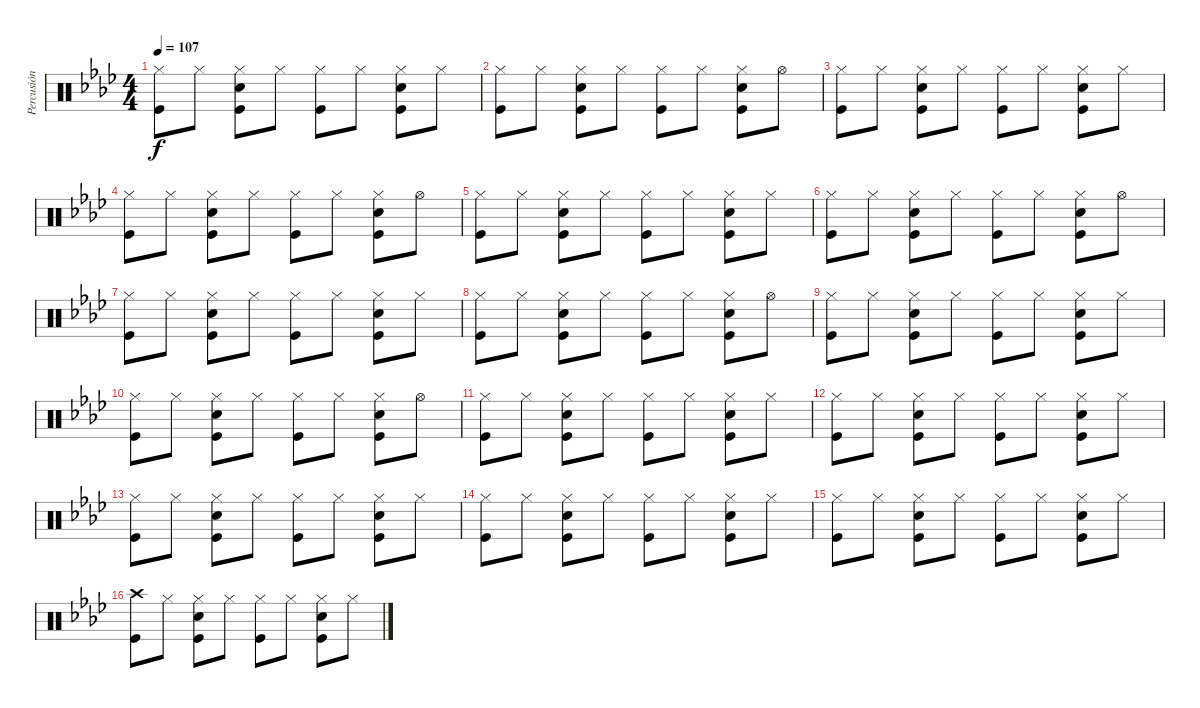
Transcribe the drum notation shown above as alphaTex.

\track ("Percusión" "Percusión") {instrument percussion}
\staff {score}
\articulation defaults
\ts (4 4)
\tempo 107
\clef neutral
\ks ab
("Hi-Hat (closed)" "Kick (hit)").8{dy f} "Hi-Hat (closed)".8 ("Hi-Hat (closed)" "Snare (hit) 2" "Kick (hit)").8 "Hi-Hat (closed)".8 ("Hi-Hat (closed)" "Kick (hit)").8 "Hi-Hat (closed)".8 ("Hi-Hat (closed)" "Snare (hit) 2" "Kick (hit)").8 "Hi-Hat (closed)".8 |
("Hi-Hat (closed)" "Kick (hit)").8 "Hi-Hat (closed)".8 ("Hi-Hat (closed)" "Snare (hit) 2" "Kick (hit)").8 "Hi-Hat (closed)".8 ("Hi-Hat (closed)" "Kick (hit)").8 "Hi-Hat (closed)".8 ("Hi-Hat (closed)" "Snare (hit) 2" "Kick (hit)").8 "Hi-Hat (open)".8 |
("Hi-Hat (closed)" "Kick (hit)").8 "Hi-Hat (closed)".8 ("Hi-Hat (closed)" "Snare (hit) 2" "Kick (hit)").8 "Hi-Hat (closed)".8 ("Hi-Hat (closed)" "Kick (hit)").8 "Hi-Hat (closed)".8 ("Hi-Hat (closed)" "Snare (hit) 2" "Kick (hit)").8 "Hi-Hat (closed)".8 |
("Hi-Hat (closed)" "Kick (hit)").8 "Hi-Hat (closed)".8 ("Hi-Hat (closed)" "Snare (hit) 2" "Kick (hit)").8 "Hi-Hat (closed)".8 ("Hi-Hat (closed)" "Kick (hit)").8 "Hi-Hat (closed)".8 ("Hi-Hat (closed)" "Snare (hit) 2" "Kick (hit)").8 "Hi-Hat (open)".8 |
("Hi-Hat (closed)" "Kick (hit)").8 "Hi-Hat (closed)".8 ("Hi-Hat (closed)" "Snare (hit) 2" "Kick (hit)").8 "Hi-Hat (closed)".8 ("Hi-Hat (closed)" "Kick (hit)").8 "Hi-Hat (closed)".8 ("Hi-Hat (closed)" "Snare (hit) 2" "Kick (hit)").8 "Hi-Hat (closed)".8 |
("Hi-Hat (closed)" "Kick (hit)").8 "Hi-Hat (closed)".8 ("Hi-Hat (closed)" "Snare (hit) 2" "Kick (hit)").8 "Hi-Hat (closed)".8 ("Hi-Hat (closed)" "Kick (hit)").8 "Hi-Hat (closed)".8 ("Hi-Hat (closed)" "Snare (hit) 2" "Kick (hit)").8 "Hi-Hat (open)".8 |
("Hi-Hat (closed)" "Kick (hit)").8 "Hi-Hat (closed)".8 ("Hi-Hat (closed)" "Snare (hit) 2" "Kick (hit)").8 "Hi-Hat (closed)".8 ("Hi-Hat (closed)" "Kick (hit)").8 "Hi-Hat (closed)".8 ("Hi-Hat (closed)" "Snare (hit) 2" "Kick (hit)").8 "Hi-Hat (closed)".8 |
("Hi-Hat (closed)" "Kick (hit)").8 "Hi-Hat (closed)".8 ("Hi-Hat (closed)" "Snare (hit) 2" "Kick (hit)").8 "Hi-Hat (closed)".8 ("Hi-Hat (closed)" "Kick (hit)").8 "Hi-Hat (closed)".8 ("Hi-Hat (closed)" "Snare (hit) 2" "Kick (hit)").8 "Hi-Hat (open)".8 |
("Hi-Hat (closed)" "Kick (hit)").8 "Hi-Hat (closed)".8 ("Hi-Hat (closed)" "Snare (hit) 2" "Kick (hit)").8 "Hi-Hat (closed)".8 ("Hi-Hat (closed)" "Kick (hit)").8 "Hi-Hat (closed)".8 ("Hi-Hat (closed)" "Snare (hit) 2" "Kick (hit)").8 "Hi-Hat (closed)".8 |
("Hi-Hat (closed)" "Kick (hit)").8 "Hi-Hat (closed)".8 ("Hi-Hat (closed)" "Snare (hit) 2" "Kick (hit)").8 "Hi-Hat (closed)".8 ("Hi-Hat (closed)" "Kick (hit)").8 "Hi-Hat (closed)".8 ("Hi-Hat (closed)" "Snare (hit) 2" "Kick (hit)").8 "Hi-Hat (open)".8 |
("Hi-Hat (closed)" "Kick (hit)").8 "Hi-Hat (closed)".8 ("Hi-Hat (closed)" "Snare (hit) 2" "Kick (hit)").8 "Hi-Hat (closed)".8 ("Hi-Hat (closed)" "Kick (hit)").8 "Hi-Hat (closed)".8 ("Hi-Hat (closed)" "Snare (hit) 2" "Kick (hit)").8 "Hi-Hat (closed)".8 |
("Hi-Hat (closed)" "Kick (hit)").8 "Hi-Hat (closed)".8 ("Hi-Hat (closed)" "Snare (hit) 2" "Kick (hit)").8 "Hi-Hat (closed)".8 ("Hi-Hat (closed)" "Kick (hit)").8 "Hi-Hat (closed)".8 ("Hi-Hat (closed)" "Snare (hit) 2" "Kick (hit)").8 "Hi-Hat (closed)".8 |
("Hi-Hat (closed)" "Kick (hit)").8 "Hi-Hat (closed)".8 ("Hi-Hat (closed)" "Snare (hit) 2" "Kick (hit)").8 "Hi-Hat (closed)".8 ("Hi-Hat (closed)" "Kick (hit)").8 "Hi-Hat (closed)".8 ("Hi-Hat (closed)" "Snare (hit) 2" "Kick (hit)").8 "Hi-Hat (closed)".8 |
("Hi-Hat (closed)" "Kick (hit)").8 "Hi-Hat (closed)".8 ("Hi-Hat (closed)" "Snare (hit) 2" "Kick (hit)").8 "Hi-Hat (closed)".8 ("Hi-Hat (closed)" "Kick (hit)").8 "Hi-Hat (closed)".8 ("Hi-Hat (closed)" "Snare (hit) 2" "Kick (hit)").8 "Hi-Hat (closed)".8 |
("Hi-Hat (closed)" "Kick (hit)").8 "Hi-Hat (closed)".8 ("Hi-Hat (closed)" "Snare (hit) 2" "Kick (hit)").8 "Hi-Hat (closed)".8 ("Hi-Hat (closed)" "Kick (hit)").8 "Hi-Hat (closed)".8 ("Hi-Hat (closed)" "Snare (hit) 2" "Kick (hit)").8 "Hi-Hat (closed)".8 |
("Crash high (hit)" "Kick (hit)").8 "Hi-Hat (closed)".8 ("Hi-Hat (closed)" "Snare (hit) 2" "Kick (hit)").8 "Hi-Hat (closed)".8 ("Hi-Hat (closed)" "Kick (hit)").8 "Hi-Hat (closed)".8 ("Hi-Hat (closed)" "Snare (hit) 2" "Kick (hit)").8 "Hi-Hat (closed)".8
